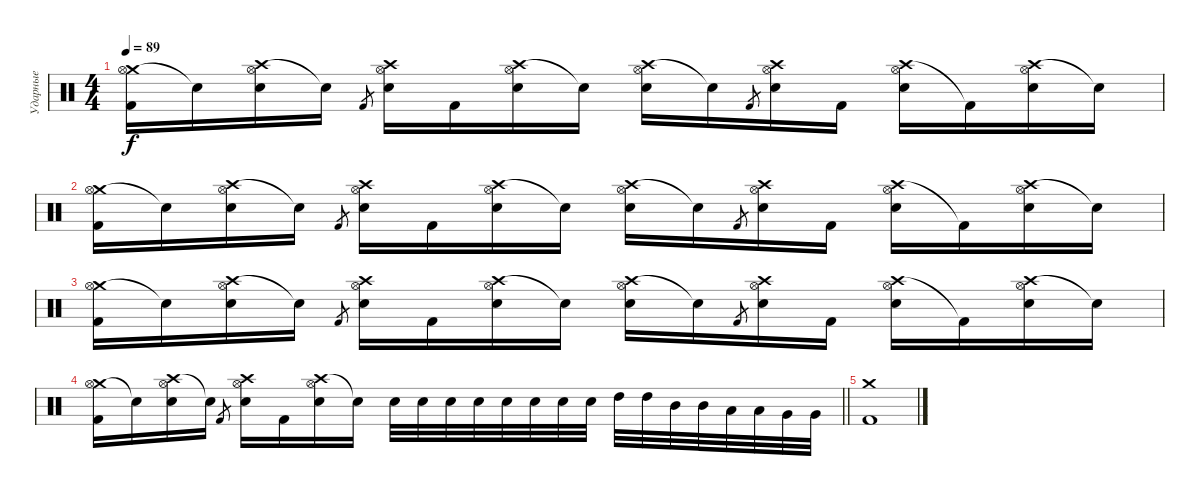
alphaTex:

\track ("Ударные" "Ударные") {instrument percussion}
\staff {score}
\articulation defaults
\ts (4 4)
\tempo 89
\clef neutral
\ks c
("Crash medium (hit)" "Kick (hit) 2" "Hi-Hat (open)").16{dy f} "Snare (hit)"{t}.16 ("Crash high (hit)" "Electric Snare (hit)" "Hi-Hat (open)").16 "Snare (hit)"{t}.16 "Kick (hit) 2".8{gr} ("Crash high (hit)" "Electric Snare (hit)" "Hi-Hat (open)").16 "Kick (hit) 2".16 ("Crash high (hit)" "Electric Snare (hit)" "Hi-Hat (open)").16 "Snare (hit)"{t}.16 ("Crash high (hit)" "Electric Snare (hit)" "Hi-Hat (open)").16 "Snare (hit)"{t}.16 "Kick (hit) 2".8{gr} ("Crash high (hit)" "Electric Snare (hit)" "Hi-Hat (open)").16 "Kick (hit) 2".16 ("Crash high (hit)" "Electric Snare (hit)" "Hi-Hat (open)").16 "Kick (hit) 2"{t}.16 ("Crash high (hit)" "Electric Snare (hit)" "Hi-Hat (open)").16 "Snare (hit)"{t}.16 |
("Crash medium (hit)" "Kick (hit) 2" "Hi-Hat (open)").16 "Snare (hit)"{t}.16 ("Crash high (hit)" "Electric Snare (hit)" "Hi-Hat (open)").16 "Snare (hit)"{t}.16 "Kick (hit) 2".8{gr} ("Crash high (hit)" "Electric Snare (hit)" "Hi-Hat (open)").16 "Kick (hit) 2".16 ("Crash high (hit)" "Electric Snare (hit)" "Hi-Hat (open)").16 "Snare (hit)"{t}.16 ("Crash high (hit)" "Electric Snare (hit)" "Hi-Hat (open)").16 "Snare (hit)"{t}.16 "Kick (hit) 2".8{gr} ("Crash high (hit)" "Electric Snare (hit)" "Hi-Hat (open)").16 "Kick (hit) 2".16 ("Crash high (hit)" "Electric Snare (hit)" "Hi-Hat (open)").16 "Kick (hit) 2"{t}.16 ("Crash high (hit)" "Electric Snare (hit)" "Hi-Hat (open)").16 "Snare (hit)"{t}.16 |
("Crash medium (hit)" "Kick (hit) 2" "Hi-Hat (open)").16 "Snare (hit)"{t}.16 ("Crash high (hit)" "Electric Snare (hit)" "Hi-Hat (open)").16 "Snare (hit)"{t}.16 "Kick (hit) 2".8{gr} ("Crash high (hit)" "Electric Snare (hit)" "Hi-Hat (open)").16 "Kick (hit) 2".16 ("Crash high (hit)" "Electric Snare (hit)" "Hi-Hat (open)").16 "Snare (hit)"{t}.16 ("Crash high (hit)" "Electric Snare (hit)" "Hi-Hat (open)").16 "Snare (hit)"{t}.16 "Kick (hit) 2".8{gr} ("Crash high (hit)" "Electric Snare (hit)" "Hi-Hat (open)").16 "Kick (hit) 2".16 ("Crash high (hit)" "Electric Snare (hit)" "Hi-Hat (open)").16 "Kick (hit) 2"{t}.16 ("Crash high (hit)" "Electric Snare (hit)" "Hi-Hat (open)").16 "Snare (hit)"{t}.16 |
\barLineRight lightlight
("Crash medium (hit)" "Kick (hit) 2" "Hi-Hat (open)").16 "Snare (hit)"{t}.16 ("Crash high (hit)" "Electric Snare (hit)" "Hi-Hat (open)").16 "Snare (hit)"{t}.16 "Kick (hit) 2".8{gr} ("Crash high (hit)" "Electric Snare (hit)" "Hi-Hat (open)").16 "Kick (hit) 2".16 ("Crash high (hit)" "Electric Snare (hit)" "Hi-Hat (open)").16 "Snare (hit)"{t}.16 "Electric Snare (hit)".32 "Electric Snare (hit)".32 "Electric Snare (hit)".32 "Electric Snare (hit)".32 "Electric Snare (hit)".32 "Electric Snare (hit)".32 "Electric Snare (hit)".32 "Electric Snare (hit)".32 "High Tom (hit)".32 "High Tom (hit)".32 "Mid Tom (hit)".32 "Mid Tom (hit)".32 "Low Tom (hit)".32 "Low Tom (hit)".32 "Very Low Tom (hit)".32 "Very Low Tom (hit)".32 |
\section ("" "")
("Crash medium (hit)" "Kick (hit) 2").1
